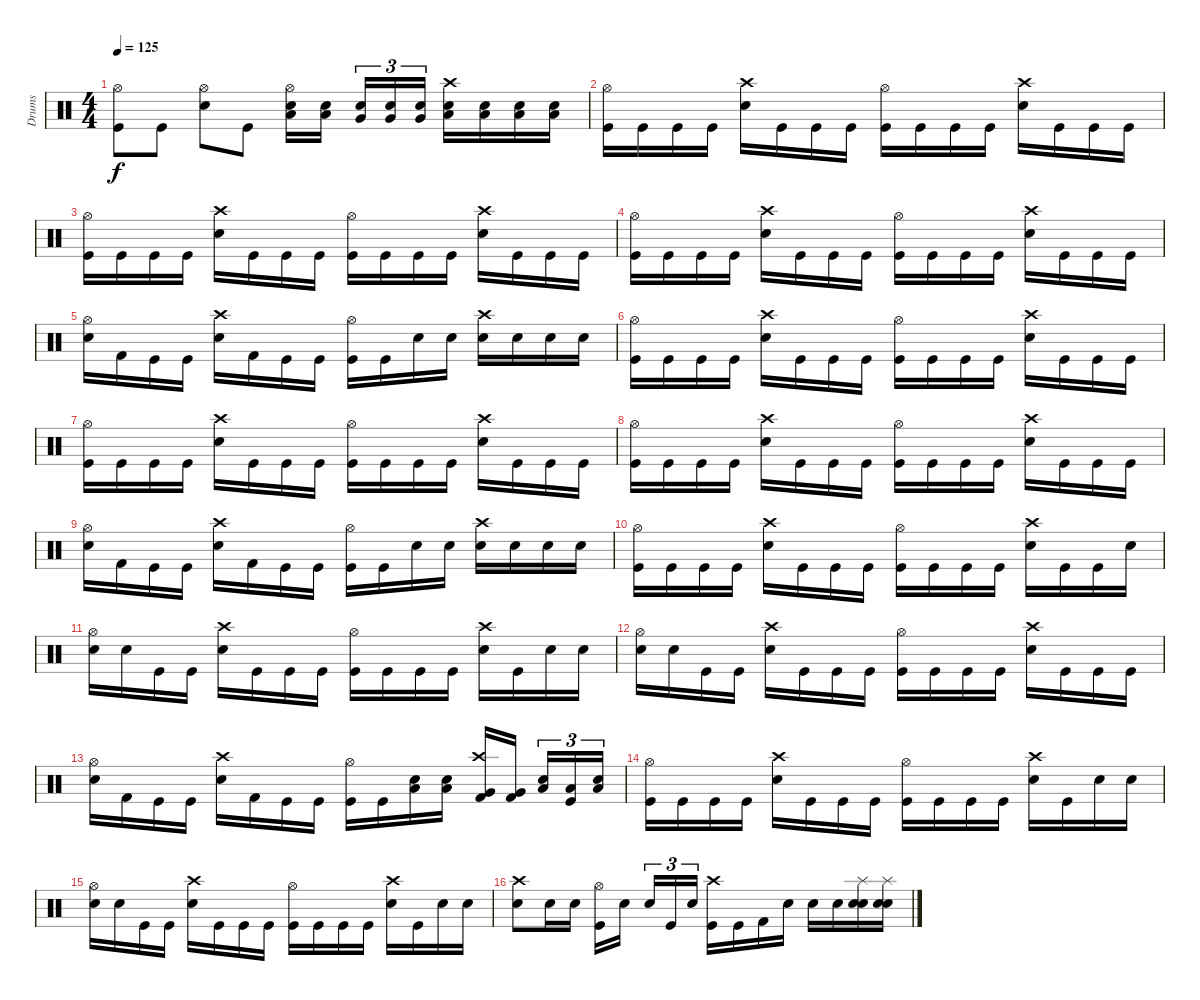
\track ("Drums" "Drums") {instrument percussion}
\staff {score}
\articulation defaults
\ts (4 4)
\tempo 125
\clef neutral
\ks c
("Hi-Hat (open)" "Kick (hit)").8{dy f} "Kick (hit)".8 ("Hi-Hat (open)" "Electric Snare (hit)").8 "Kick (hit)".8 ("Hi-Hat (open)" "Low Tom (hit)" "Snare (hit) 2").16 ("Low Tom (hit)" "Snare (hit) 2").16 ("Very Low Tom (hit)" "Snare (hit) 2").16{tu (3 2)} ("Very Low Tom (hit)" "Snare (hit) 2").16{tu (3 2)} ("Very Low Tom (hit)" "Snare (hit) 2").16{tu (3 2)} ("Crash high (hit)" "Low Floor Tom (hit)" "Electric Snare (hit)").16 ("Low Floor Tom (hit)" "Electric Snare (hit)").16 ("Low Floor Tom (hit)" "Electric Snare (hit)").16 ("Low Floor Tom (hit)" "Electric Snare (hit)").16 |
("Hi-Hat (open)" "Kick (hit)").16 "Kick (hit)".16 "Kick (hit)".16 "Kick (hit)".16 ("Crash high (hit)" "Electric Snare (hit)").16 "Kick (hit)".16 "Kick (hit)".16 "Kick (hit)".16 ("Hi-Hat (open)" "Kick (hit)").16 "Kick (hit)".16 "Kick (hit)".16 "Kick (hit)".16 ("Crash high (hit)" "Electric Snare (hit)").16 "Kick (hit)".16 "Kick (hit)".16 "Kick (hit)".16 |
("Hi-Hat (open)" "Kick (hit)").16 "Kick (hit)".16 "Kick (hit)".16 "Kick (hit)".16 ("Crash high (hit)" "Electric Snare (hit)").16 "Kick (hit)".16 "Kick (hit)".16 "Kick (hit)".16 ("Hi-Hat (open)" "Kick (hit)").16 "Kick (hit)".16 "Kick (hit)".16 "Kick (hit)".16 ("Crash high (hit)" "Electric Snare (hit)").16 "Kick (hit)".16 "Kick (hit)".16 "Kick (hit)".16 |
("Hi-Hat (open)" "Kick (hit)").16 "Kick (hit)".16 "Kick (hit)".16 "Kick (hit)".16 ("Crash high (hit)" "Electric Snare (hit)").16 "Kick (hit)".16 "Kick (hit)".16 "Kick (hit)".16 ("Hi-Hat (open)" "Kick (hit)").16 "Kick (hit)".16 "Kick (hit)".16 "Kick (hit)".16 ("Crash high (hit)" "Electric Snare (hit)").16 "Kick (hit)".16 "Kick (hit)".16 "Kick (hit)".16 |
("Hi-Hat (open)" "Electric Snare (hit)").16 "Kick (hit) 2".16 "Kick (hit)".16 "Kick (hit)".16 ("Crash high (hit)" "Electric Snare (hit)").16 "Kick (hit) 2".16 "Kick (hit)".16 "Kick (hit)".16 ("Hi-Hat (open)" "Kick (hit)").16 "Kick (hit)".16 "Snare (hit) 2".16 "Snare (hit) 2".16 ("Crash high (hit)" "Electric Snare (hit)").16 "Electric Snare (hit)".16 "Electric Snare (hit)".16 "Electric Snare (hit)".16 |
("Hi-Hat (open)" "Kick (hit)").16 "Kick (hit)".16 "Kick (hit)".16 "Kick (hit)".16 ("Crash high (hit)" "Electric Snare (hit)").16 "Kick (hit)".16 "Kick (hit)".16 "Kick (hit)".16 ("Hi-Hat (open)" "Kick (hit)").16 "Kick (hit)".16 "Kick (hit)".16 "Kick (hit)".16 ("Crash high (hit)" "Electric Snare (hit)").16 "Kick (hit)".16 "Kick (hit)".16 "Kick (hit)".16 |
("Hi-Hat (open)" "Kick (hit)").16 "Kick (hit)".16 "Kick (hit)".16 "Kick (hit)".16 ("Crash high (hit)" "Electric Snare (hit)").16 "Kick (hit)".16 "Kick (hit)".16 "Kick (hit)".16 ("Hi-Hat (open)" "Kick (hit)").16 "Kick (hit)".16 "Kick (hit)".16 "Kick (hit)".16 ("Crash high (hit)" "Electric Snare (hit)").16 "Kick (hit)".16 "Kick (hit)".16 "Kick (hit)".16 |
("Hi-Hat (open)" "Kick (hit)").16 "Kick (hit)".16 "Kick (hit)".16 "Kick (hit)".16 ("Crash high (hit)" "Electric Snare (hit)").16 "Kick (hit)".16 "Kick (hit)".16 "Kick (hit)".16 ("Hi-Hat (open)" "Kick (hit)").16 "Kick (hit)".16 "Kick (hit)".16 "Kick (hit)".16 ("Crash high (hit)" "Electric Snare (hit)").16 "Kick (hit)".16 "Kick (hit)".16 "Kick (hit)".16 |
("Hi-Hat (open)" "Electric Snare (hit)").16 "Kick (hit) 2".16 "Kick (hit)".16 "Kick (hit)".16 ("Crash high (hit)" "Electric Snare (hit)").16 "Kick (hit) 2".16 "Kick (hit)".16 "Kick (hit)".16 ("Hi-Hat (open)" "Kick (hit)").16 "Kick (hit)".16 "Snare (hit) 2".16 "Snare (hit) 2".16 ("Crash high (hit)" "Electric Snare (hit)").16 "Electric Snare (hit)".16 "Electric Snare (hit)".16 "Electric Snare (hit)".16 |
("Hi-Hat (open)" "Kick (hit)").16 "Kick (hit)".16 "Kick (hit)".16 "Kick (hit)".16 ("Crash high (hit)" "Electric Snare (hit)").16 "Kick (hit)".16 "Kick (hit)".16 "Kick (hit)".16 ("Hi-Hat (open)" "Kick (hit)").16 "Kick (hit)".16 "Kick (hit)".16 "Kick (hit)".16 ("Crash high (hit)" "Electric Snare (hit)").16 "Kick (hit)".16 "Kick (hit)".16 "Snare (hit) 2".16 |
("Hi-Hat (open)" "Electric Snare (hit)").16 "Electric Snare (hit)".16 "Kick (hit)".16 "Kick (hit)".16 ("Crash high (hit)" "Electric Snare (hit)").16 "Kick (hit)".16 "Kick (hit)".16 "Kick (hit)".16 ("Hi-Hat (open)" "Kick (hit)").16 "Kick (hit)".16 "Kick (hit)".16 "Kick (hit)".16 ("Crash high (hit)" "Electric Snare (hit)").16 "Kick (hit)".16 "Electric Snare (hit)".16 "Electric Snare (hit)".16 |
("Hi-Hat (open)" "Snare (hit) 2").16 "Snare (hit) 2".16 "Kick (hit)".16 "Kick (hit)".16 ("Crash high (hit)" "Electric Snare (hit)").16 "Kick (hit)".16 "Kick (hit)".16 "Kick (hit)".16 ("Hi-Hat (open)" "Kick (hit)").16 "Kick (hit)".16 "Kick (hit)".16 "Kick (hit)".16 ("Crash high (hit)" "Electric Snare (hit)").16 "Kick (hit)".16 "Kick (hit)".16 "Kick (hit)".16 |
("Hi-Hat (open)" "Electric Snare (hit)").16 "Kick (hit) 2".16 "Kick (hit)".16 "Kick (hit)".16 ("Crash high (hit)" "Electric Snare (hit)").16 "Kick (hit) 2".16 "Kick (hit)".16 "Kick (hit)".16 ("Hi-Hat (open)" "Kick (hit)").16 "Kick (hit)".16 ("Low Tom (hit)" "Snare (hit) 2").16 ("Low Tom (hit)" "Snare (hit) 2").16 ("Crash high (hit)" "Very Low Tom (hit)" "Kick (hit) 2").16 ("Very Low Tom (hit)" "Kick (hit) 2").16 ("Low Floor Tom (hit)" "Snare (hit) 2").16{tu (3 2)} ("Low Floor Tom (hit)" "Kick (hit)").16{tu (3 2)} ("Low Floor Tom (hit)" "Snare (hit) 2").16{tu (3 2)} |
("Hi-Hat (open)" "Kick (hit)").16 "Kick (hit)".16 "Kick (hit)".16 "Kick (hit)".16 ("Crash high (hit)" "Electric Snare (hit)").16 "Kick (hit)".16 "Kick (hit)".16 "Kick (hit)".16 ("Hi-Hat (open)" "Kick (hit)").16 "Kick (hit)".16 "Kick (hit)".16 "Kick (hit)".16 ("Crash high (hit)" "Electric Snare (hit)").16 "Kick (hit)".16 "Snare (hit) 2".16 "Snare (hit) 2".16 |
("Hi-Hat (open)" "Electric Snare (hit)").16 "Electric Snare (hit)".16 "Kick (hit)".16 "Kick (hit)".16 ("Crash high (hit)" "Electric Snare (hit)").16 "Kick (hit)".16 "Kick (hit)".16 "Kick (hit)".16 ("Hi-Hat (open)" "Kick (hit)").16 "Kick (hit)".16 "Kick (hit)".16 "Kick (hit)".16 ("Crash high (hit)" "Electric Snare (hit)").16 "Kick (hit)".16 "Electric Snare (hit)".16 "Electric Snare (hit)".16 |
("Crash high (hit)" "Electric Snare (hit)").8 "Electric Snare (hit)".16 "Electric Snare (hit)".16 ("Hi-Hat (open)" "Kick (hit)").16 "Electric Snare (hit)".16 "Snare (hit) 2".16{tu (3 2)} "Kick (hit)".16{tu (3 2)} "Snare (hit) 2".16{tu (3 2)} ("Crash high (hit)" "Kick (hit)").16 "Kick (hit)".16 "Kick (hit) 2".16 "Snare (hit) 2".16 "Snare (hit) 2".16 "Electric Snare (hit)".16 ("Splash (hit)" "Snare (hit) 2" "Electric Snare (hit)").16 ("Splash (hit)" "Snare (hit) 2" "Electric Snare (hit)").16
